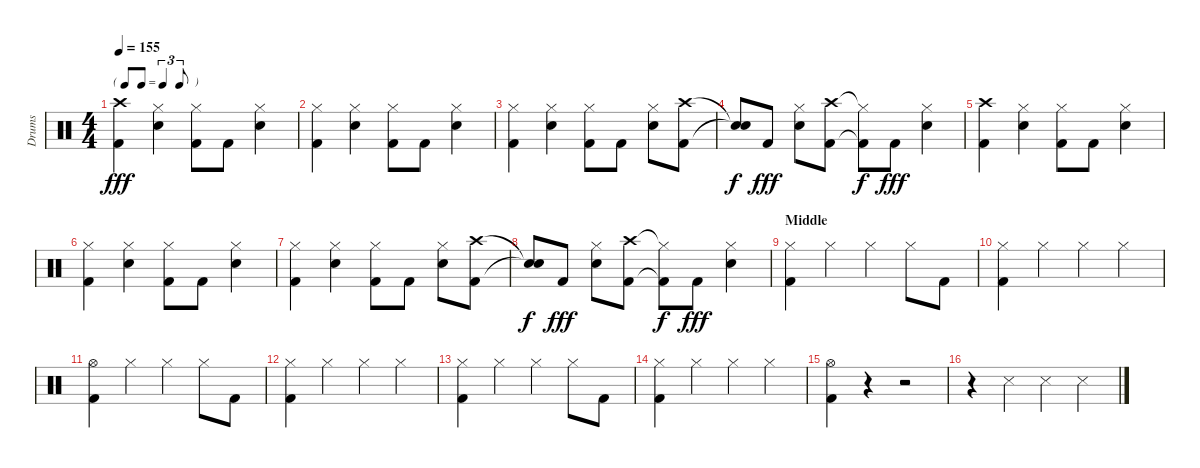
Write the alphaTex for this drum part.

\track ("Drums" "Drums") {instrument percussion}
\staff {score}
\articulation defaults
\ts (4 4)
\tf triplet8th
\tempo 155
\clef neutral
\ks c
("Crash high (hit)" "Kick (hit) 2").4{dy fff} ("Hi-Hat (closed)" "Snare (hit) 2").4 ("Hi-Hat (closed)" "Kick (hit) 2").8 "Kick (hit) 2".8 ("Hi-Hat (closed)" "Snare (hit) 2").4 |
("Hi-Hat (closed)" "Kick (hit) 2").4 ("Hi-Hat (closed)" "Snare (hit) 2").4 ("Hi-Hat (closed)" "Kick (hit) 2").8 "Kick (hit) 2".8 ("Hi-Hat (closed)" "Snare (hit) 2").4 |
("Hi-Hat (closed)" "Kick (hit) 2").4 ("Hi-Hat (closed)" "Snare (hit) 2").4 ("Hi-Hat (closed)" "Kick (hit) 2").8 "Kick (hit) 2".8 ("Hi-Hat (closed)" "Snare (hit) 2").8 ("Crash high (hit)" "Kick (hit) 2").8 |
("Snare (hit)"{t} "Snare (hit)"{t}).8{dy f} "Kick (hit) 2".8{dy fff} ("Hi-Hat (closed)" "Snare (hit) 2").8 ("Crash high (hit)" "Kick (hit) 2").8 ("Hi-Hat (closed)"{t} "Kick (hit) 2"{t}).8{dy f} "Kick (hit) 2".8{dy fff} ("Hi-Hat (closed)" "Snare (hit) 2").4 |
("Crash high (hit)" "Kick (hit) 2").4 ("Hi-Hat (closed)" "Snare (hit) 2").4 ("Hi-Hat (closed)" "Kick (hit) 2").8 "Kick (hit) 2".8 ("Hi-Hat (closed)" "Snare (hit) 2").4 |
("Hi-Hat (closed)" "Kick (hit) 2").4 ("Hi-Hat (closed)" "Snare (hit) 2").4 ("Hi-Hat (closed)" "Kick (hit) 2").8 "Kick (hit) 2".8 ("Hi-Hat (closed)" "Snare (hit) 2").4 |
("Hi-Hat (closed)" "Kick (hit) 2").4 ("Hi-Hat (closed)" "Snare (hit) 2").4 ("Hi-Hat (closed)" "Kick (hit) 2").8 "Kick (hit) 2".8 ("Hi-Hat (closed)" "Snare (hit) 2").8 ("Crash high (hit)" "Kick (hit) 2").8 |
("Snare (hit)"{t} "Snare (hit)"{t}).8{dy f} "Kick (hit) 2".8{dy fff} ("Hi-Hat (closed)" "Snare (hit) 2").8 ("Crash high (hit)" "Kick (hit) 2").8 ("Hi-Hat (closed)"{t} "Kick (hit) 2"{t}).8{dy f} "Kick (hit) 2".8{dy fff} ("Hi-Hat (closed)" "Snare (hit) 2").4 |
\section ("" "Middle")
("Hi-Hat (closed)" "Kick (hit) 2").4 "Hi-Hat (closed)".4 "Hi-Hat (closed)".4 "Hi-Hat (closed)".8 "Kick (hit) 2".8 |
("Hi-Hat (closed)" "Kick (hit) 2").4 "Hi-Hat (closed)".4 "Hi-Hat (closed)".4 "Hi-Hat (closed)".4 |
("Hi-Hat (open)" "Kick (hit) 2").4 "Hi-Hat (closed)".4 "Hi-Hat (closed)".4 "Hi-Hat (closed)".8 "Kick (hit) 2".8 |
("Hi-Hat (closed)" "Kick (hit) 2").4 "Hi-Hat (closed)".4 "Hi-Hat (closed)".4 "Hi-Hat (closed)".4 |
("Hi-Hat (closed)" "Kick (hit) 2").4 "Hi-Hat (closed)".4 "Hi-Hat (closed)".4 "Hi-Hat (closed)".8 "Kick (hit) 2".8 |
("Hi-Hat (closed)" "Kick (hit) 2").4 "Hi-Hat (closed)".4 "Hi-Hat (closed)".4 "Hi-Hat (closed)".4 |
("Hi-Hat (open)" "Kick (hit) 2").4 r.4 r.2 |
r.4 "Snare (side stick) 3".4 "Snare (side stick) 3".4 "Snare (side stick) 3".4
